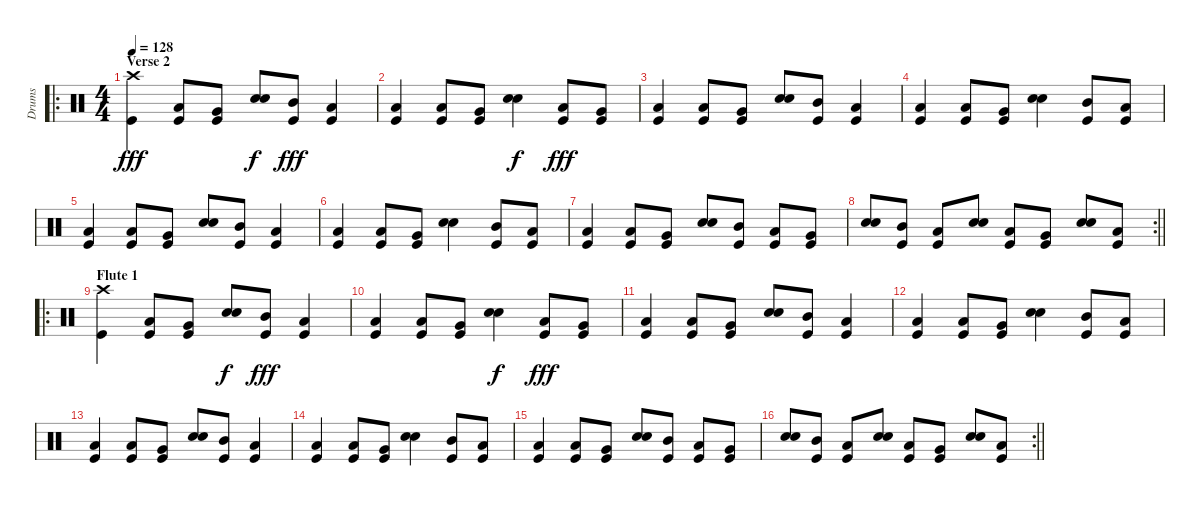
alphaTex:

\track ("Drums" "Drums") {instrument percussion}
\staff {score}
\articulation defaults
\ro
\ts (4 4)
\section ("" "Verse 2")
\tempo 128
\clef neutral
\ks c
("Crash high (hit)" "Kick (hit)").4{dy fff} ("Low Tom (hit)" "Kick (hit)").8 ("Very Low Tom (hit)" "Kick (hit)").8 ("Snare (hit) 2" "Electric Snare (hit)").8{dy f} ("Mid Tom (hit)" "Kick (hit)").8{dy fff} ("Low Tom (hit)" "Kick (hit)").4 |
("Low Tom (hit)" "Kick (hit)").4 ("Low Tom (hit)" "Kick (hit)").8 ("Very Low Tom (hit)" "Kick (hit)").8 ("Snare (hit) 2" "Electric Snare (hit)").4{dy f} ("Low Tom (hit)" "Kick (hit)").8{dy fff} ("Very Low Tom (hit)" "Kick (hit)").8 |
("Low Tom (hit)" "Kick (hit)").4 ("Low Tom (hit)" "Kick (hit)").8 ("Very Low Tom (hit)" "Kick (hit)").8 ("Snare (hit) 2" "Electric Snare (hit)").8 ("Mid Tom (hit)" "Kick (hit)").8 ("Low Tom (hit)" "Kick (hit)").4 |
("Low Tom (hit)" "Kick (hit)").4 ("Low Tom (hit)" "Kick (hit)").8 ("Very Low Tom (hit)" "Kick (hit)").8 ("Snare (hit) 2" "Electric Snare (hit)").4 ("Mid Tom (hit)" "Kick (hit)").8 ("Low Tom (hit)" "Kick (hit)").8 |
("Low Tom (hit)" "Kick (hit)").4 ("Low Tom (hit)" "Kick (hit)").8 ("Very Low Tom (hit)" "Kick (hit)").8 ("Snare (hit) 2" "Electric Snare (hit)").8 ("Mid Tom (hit)" "Kick (hit)").8 ("Low Tom (hit)" "Kick (hit)").4 |
("Low Tom (hit)" "Kick (hit)").4 ("Low Tom (hit)" "Kick (hit)").8 ("Very Low Tom (hit)" "Kick (hit)").8 ("Snare (hit) 2" "Electric Snare (hit)").4 ("Mid Tom (hit)" "Kick (hit)").8 ("Low Tom (hit)" "Kick (hit)").8 |
("Low Tom (hit)" "Kick (hit)").4 ("Low Tom (hit)" "Kick (hit)").8 ("Very Low Tom (hit)" "Kick (hit)").8 ("Snare (hit) 2" "Electric Snare (hit)").8 ("Mid Tom (hit)" "Kick (hit)").8 ("Low Tom (hit)" "Kick (hit)").8 ("Very Low Tom (hit)" "Kick (hit)").8 |
\rc 2
\barLineRight lightlight
("Snare (hit) 2" "Electric Snare (hit)").8 ("Mid Tom (hit)" "Kick (hit)").8 ("Low Tom (hit)" "Kick (hit)").8 ("Snare (hit) 2" "Electric Snare (hit)").8 ("Low Tom (hit)" "Kick (hit)").8 ("Very Low Tom (hit)" "Kick (hit)").8 ("Snare (hit) 2" "Electric Snare (hit)").8 ("Low Tom (hit)" "Kick (hit)").8 |
\ro
\section ("" "Flute 1")
("Crash high (hit)" "Kick (hit)").4 ("Low Tom (hit)" "Kick (hit)").8 ("Very Low Tom (hit)" "Kick (hit)").8 ("Snare (hit) 2" "Electric Snare (hit)").8{dy f} ("Mid Tom (hit)" "Kick (hit)").8{dy fff} ("Low Tom (hit)" "Kick (hit)").4 |
("Low Tom (hit)" "Kick (hit)").4 ("Low Tom (hit)" "Kick (hit)").8 ("Very Low Tom (hit)" "Kick (hit)").8 ("Snare (hit) 2" "Electric Snare (hit)").4{dy f} ("Low Tom (hit)" "Kick (hit)").8{dy fff} ("Very Low Tom (hit)" "Kick (hit)").8 |
("Low Tom (hit)" "Kick (hit)").4 ("Low Tom (hit)" "Kick (hit)").8 ("Very Low Tom (hit)" "Kick (hit)").8 ("Snare (hit) 2" "Electric Snare (hit)").8 ("Mid Tom (hit)" "Kick (hit)").8 ("Low Tom (hit)" "Kick (hit)").4 |
("Low Tom (hit)" "Kick (hit)").4 ("Low Tom (hit)" "Kick (hit)").8 ("Very Low Tom (hit)" "Kick (hit)").8 ("Snare (hit) 2" "Electric Snare (hit)").4 ("Mid Tom (hit)" "Kick (hit)").8 ("Low Tom (hit)" "Kick (hit)").8 |
("Low Tom (hit)" "Kick (hit)").4 ("Low Tom (hit)" "Kick (hit)").8 ("Very Low Tom (hit)" "Kick (hit)").8 ("Snare (hit) 2" "Electric Snare (hit)").8 ("Mid Tom (hit)" "Kick (hit)").8 ("Low Tom (hit)" "Kick (hit)").4 |
("Low Tom (hit)" "Kick (hit)").4 ("Low Tom (hit)" "Kick (hit)").8 ("Very Low Tom (hit)" "Kick (hit)").8 ("Snare (hit) 2" "Electric Snare (hit)").4 ("Mid Tom (hit)" "Kick (hit)").8 ("Low Tom (hit)" "Kick (hit)").8 |
("Low Tom (hit)" "Kick (hit)").4 ("Low Tom (hit)" "Kick (hit)").8 ("Very Low Tom (hit)" "Kick (hit)").8 ("Snare (hit) 2" "Electric Snare (hit)").8 ("Mid Tom (hit)" "Kick (hit)").8 ("Low Tom (hit)" "Kick (hit)").8 ("Very Low Tom (hit)" "Kick (hit)").8 |
\rc 2
\barLineRight lightlight
("Snare (hit) 2" "Electric Snare (hit)").8 ("Mid Tom (hit)" "Kick (hit)").8 ("Low Tom (hit)" "Kick (hit)").8 ("Snare (hit) 2" "Electric Snare (hit)").8 ("Low Tom (hit)" "Kick (hit)").8 ("Very Low Tom (hit)" "Kick (hit)").8 ("Snare (hit) 2" "Electric Snare (hit)").8 ("Low Tom (hit)" "Kick (hit)").8
